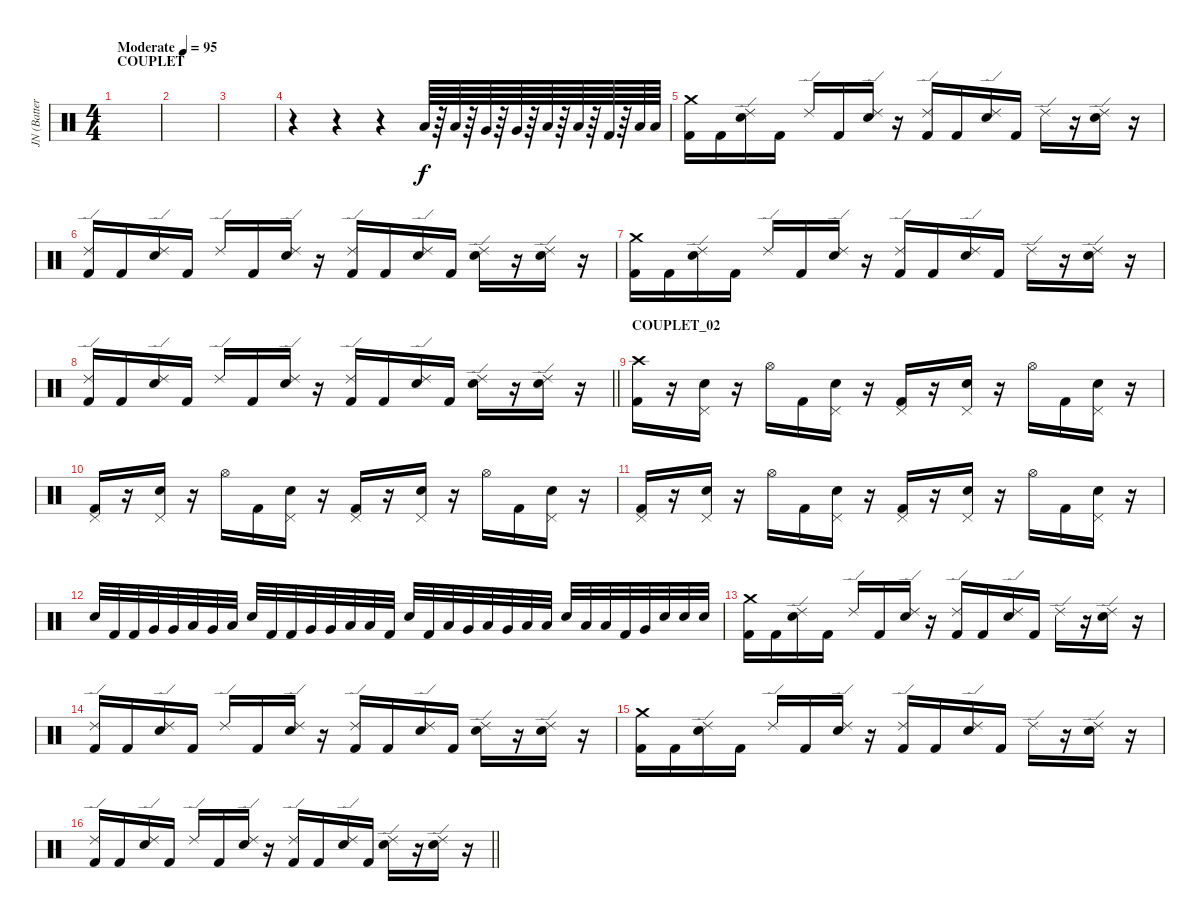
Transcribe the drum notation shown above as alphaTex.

\track ("JN (Batterie)" "JN (Batter") {instrument percussion}
\staff {score}
\articulation defaults
\ts (4 4)
\section ("" "COUPLET")
\tempo (95 "Moderate")
\clef neutral
\ks c
|
|
|
r.4 r.4 r.4 "Low Tom (hit)".64 r.64 "Low Tom (hit)".64 r.64 "Very Low Tom (hit)".64 r.64 "Very Low Tom (hit)".64 r.64 "Low Floor Tom (hit)".64 r.64 "Low Floor Tom (hit)".64 r.64 "Kick (hit) 2".64 r.64 "Low Tom (hit)".64 "Low Tom (hit)".64 |
("Crash medium (hit)" "Kick (hit) 2").16 "Kick (hit) 2".16 ("Ride (edge) 2" "Electric Snare (hit)").16 "Kick (hit) 2".16 "Ride (edge) 2".16 "Kick (hit) 2".16 ("Ride (edge) 2" "Electric Snare (hit)").16 r.16 ("Ride (edge) 2" "Kick (hit) 2").16 "Kick (hit) 2".16 ("Ride (edge) 2" "Electric Snare (hit)").16 "Kick (hit) 2".16 "Ride (edge) 2".16 r.16 ("Ride (edge) 2" "Electric Snare (hit)").16 r.16 |
("Ride (edge) 2" "Kick (hit) 2").16 "Kick (hit) 2".16 ("Ride (edge) 2" "Electric Snare (hit)").16 "Kick (hit) 2".16 "Ride (edge) 2".16 "Kick (hit) 2".16 ("Ride (edge) 2" "Electric Snare (hit)").16 r.16 ("Ride (edge) 2" "Kick (hit) 2").16 "Kick (hit) 2".16 ("Ride (edge) 2" "Electric Snare (hit)").16 "Kick (hit) 2".16 ("Ride (edge) 2" "Electric Snare (hit)").16 r.16 ("Ride (edge) 2" "Electric Snare (hit)").16 r.16 |
("Crash medium (hit)" "Kick (hit) 2").16 "Kick (hit) 2".16 ("Ride (edge) 2" "Electric Snare (hit)").16 "Kick (hit) 2".16 "Ride (edge) 2".16 "Kick (hit) 2".16 ("Ride (edge) 2" "Electric Snare (hit)").16 r.16 ("Ride (edge) 2" "Kick (hit) 2").16 "Kick (hit) 2".16 ("Ride (edge) 2" "Electric Snare (hit)").16 "Kick (hit) 2".16 "Ride (edge) 2".16 r.16 ("Ride (edge) 2" "Electric Snare (hit)").16 r.16 |
\barLineRight lightlight
("Ride (edge) 2" "Kick (hit) 2").16 "Kick (hit) 2".16 ("Ride (edge) 2" "Electric Snare (hit)").16 "Kick (hit) 2".16 "Ride (edge) 2".16 "Kick (hit) 2".16 ("Ride (edge) 2" "Electric Snare (hit)").16 r.16 ("Ride (edge) 2" "Kick (hit) 2").16 "Kick (hit) 2".16 ("Ride (edge) 2" "Electric Snare (hit)").16 "Kick (hit) 2".16 ("Ride (edge) 2" "Electric Snare (hit)").16 r.16 ("Ride (edge) 2" "Electric Snare (hit)").16 r.16 |
\section ("" "COUPLET_02")
("Crash high (hit)" "Kick (hit) 2").16 r.16 ("Pedal Hi-Hat (hit)" "Electric Snare (hit)").16 r.16 "Hi-Hat (open)".16 "Kick (hit) 2".16 ("Pedal Hi-Hat (hit)" "Electric Snare (hit)").16 r.16 ("Pedal Hi-Hat (hit)" "Kick (hit) 2").16 r.16 ("Pedal Hi-Hat (hit)" "Electric Snare (hit)").16 r.16 "Hi-Hat (open)".16 "Kick (hit) 2".16 ("Pedal Hi-Hat (hit)" "Electric Snare (hit)").16 r.16 |
("Pedal Hi-Hat (hit)" "Kick (hit) 2").16 r.16 ("Pedal Hi-Hat (hit)" "Electric Snare (hit)").16 r.16 "Hi-Hat (open)".16 "Kick (hit) 2".16 ("Pedal Hi-Hat (hit)" "Electric Snare (hit)").16 r.16 ("Pedal Hi-Hat (hit)" "Kick (hit) 2").16 r.16 ("Pedal Hi-Hat (hit)" "Electric Snare (hit)").16 r.16 "Hi-Hat (open)".16 "Kick (hit) 2".16 ("Pedal Hi-Hat (hit)" "Electric Snare (hit)").16 r.16 |
("Pedal Hi-Hat (hit)" "Kick (hit) 2").16 r.16 ("Pedal Hi-Hat (hit)" "Electric Snare (hit)").16 r.16 "Hi-Hat (open)".16 "Kick (hit) 2".16 ("Pedal Hi-Hat (hit)" "Electric Snare (hit)").16 r.16 ("Pedal Hi-Hat (hit)" "Kick (hit) 2").16 r.16 ("Pedal Hi-Hat (hit)" "Electric Snare (hit)").16 r.16 "Hi-Hat (open)".16 "Kick (hit) 2".16 ("Pedal Hi-Hat (hit)" "Electric Snare (hit)").16 r.16 |
"Electric Snare (hit)".32 "Kick (hit) 2".32 "Kick (hit) 2".32 "Very Low Tom (hit)".32 "Very Low Tom (hit)".32 "Low Tom (hit)".32 "Very Low Tom (hit)".32 "Low Floor Tom (hit)".32 "Electric Snare (hit)".32 "Kick (hit) 2".32 "Kick (hit) 2".32 "Very Low Tom (hit)".32 "Very Low Tom (hit)".32 "Low Tom (hit)".32 "Low Floor Tom (hit)".32 "Kick (hit) 2".32 "Electric Snare (hit)".32 "Kick (hit) 2".32 "Low Tom (hit)".32 "Very Low Tom (hit)".32 "Low Tom (hit)".32 "Very Low Tom (hit)".32 "Low Floor Tom (hit)".32 "Low Floor Tom (hit)".32 "Electric Snare (hit)".32 "Low Tom (hit)".32 "Low Tom (hit)".32 "Kick (hit) 2".32 "Very Low Tom (hit)".32 "Electric Snare (hit)".32 "Electric Snare (hit)".32 "Electric Snare (hit)".32 |
("Crash medium (hit)" "Kick (hit) 2").16 "Kick (hit) 2".16 ("Ride (edge) 2" "Electric Snare (hit)").16 "Kick (hit) 2".16 "Ride (edge) 2".16 "Kick (hit) 2".16 ("Ride (edge) 2" "Electric Snare (hit)").16 r.16 ("Ride (edge) 2" "Kick (hit) 2").16 "Kick (hit) 2".16 ("Ride (edge) 2" "Electric Snare (hit)").16 "Kick (hit) 2".16 "Ride (edge) 2".16 r.16 ("Ride (edge) 2" "Electric Snare (hit)").16 r.16 |
("Ride (edge) 2" "Kick (hit) 2").16 "Kick (hit) 2".16 ("Ride (edge) 2" "Electric Snare (hit)").16 "Kick (hit) 2".16 "Ride (edge) 2".16 "Kick (hit) 2".16 ("Ride (edge) 2" "Electric Snare (hit)").16 r.16 ("Ride (edge) 2" "Kick (hit) 2").16 "Kick (hit) 2".16 ("Ride (edge) 2" "Electric Snare (hit)").16 "Kick (hit) 2".16 ("Ride (edge) 2" "Electric Snare (hit)").16 r.16 ("Ride (edge) 2" "Electric Snare (hit)").16 r.16 |
("Crash medium (hit)" "Kick (hit) 2").16 "Kick (hit) 2".16 ("Ride (edge) 2" "Electric Snare (hit)").16 "Kick (hit) 2".16 "Ride (edge) 2".16 "Kick (hit) 2".16 ("Ride (edge) 2" "Electric Snare (hit)").16 r.16 ("Ride (edge) 2" "Kick (hit) 2").16 "Kick (hit) 2".16 ("Ride (edge) 2" "Electric Snare (hit)").16 "Kick (hit) 2".16 "Ride (edge) 2".16 r.16 ("Ride (edge) 2" "Electric Snare (hit)").16 r.16 |
\barLineRight lightlight
("Ride (edge) 2" "Kick (hit) 2").16 "Kick (hit) 2".16 ("Ride (edge) 2" "Electric Snare (hit)").16 "Kick (hit) 2".16 "Ride (edge) 2".16 "Kick (hit) 2".16 ("Ride (edge) 2" "Electric Snare (hit)").16 r.16 ("Ride (edge) 2" "Kick (hit) 2").16 "Kick (hit) 2".16 ("Ride (edge) 2" "Electric Snare (hit)").16 "Kick (hit) 2".16 ("Ride (edge) 2" "Electric Snare (hit)").16 r.16 ("Ride (edge) 2" "Electric Snare (hit)").16 r.16
